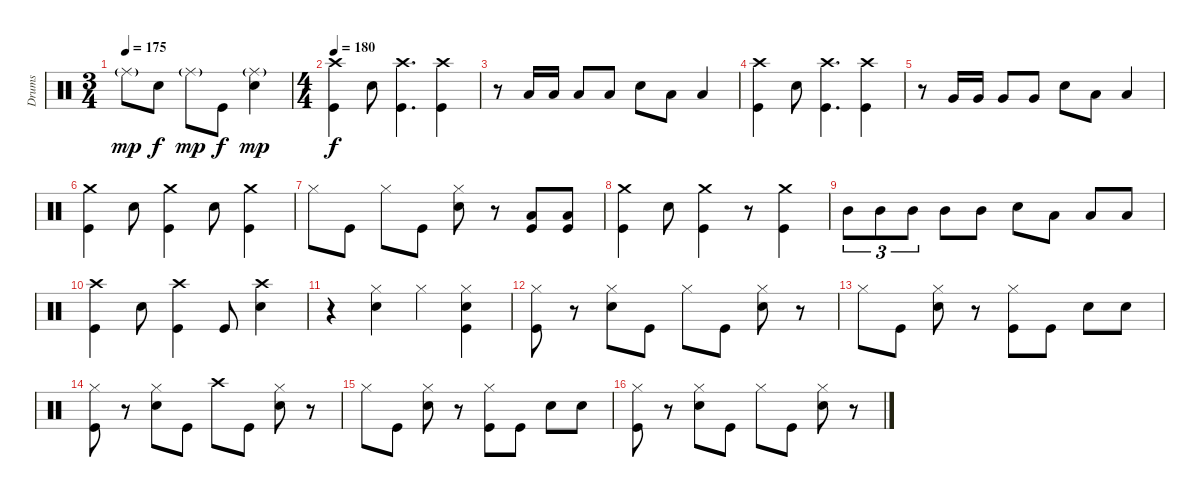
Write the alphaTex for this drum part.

\track ("Drums" "Drums") {instrument percussion}
\staff {score}
\articulation defaults
\ts (3 4)
\tempo 175
\clef neutral
\ks c "Ride (middle)"{g}.8{dy mp} "Electric Snare (hit)".8{dy f} "Ride (middle)"{g}.8{dy mp} "Kick (hit)".8{dy f}
("Ride (middle)"{g} "Electric Snare (hit)").4{dy mp} |
\ts (4 4)
\tempo 180
("Crash high (hit)" "Kick (hit)").4{dy f} "Electric Snare (hit)".8 ("Crash high (hit)" "Kick (hit)").4{d} ("Crash high (hit)" "Kick (hit)").4 |
r.8 "Low Tom (hit)".16 "Low Tom (hit)".16 "Low Tom (hit)".8 "Low Tom (hit)".8 "Electric Snare (hit)".8 "Low Tom (hit)".8 "Low Tom (hit)".4 |
("Crash high (hit)" "Kick (hit)").4 "Electric Snare (hit)".8 ("Crash high (hit)" "Kick (hit)").4{d} ("Crash high (hit)" "Kick (hit)").4 |
r.8 "Very Low Tom (hit)".16 "Very Low Tom (hit)".16 "Very Low Tom (hit)".8 "Very Low Tom (hit)".8 "Electric Snare (hit)".8 "Low Tom (hit)".8 "Low Tom (hit)".4 |
("Crash medium (hit)" "Kick (hit)").4 "Electric Snare (hit)".8 ("Crash medium (hit)" "Kick (hit)").4 "Electric Snare (hit)".8 ("Crash medium (hit)" "Kick (hit)").4 |
"Hi-Hat (closed)".8 "Kick (hit)".8 "Hi-Hat (closed)".8 "Kick (hit)".8 ("Hi-Hat (closed)" "Electric Snare (hit)").8 r.8 ("Low Tom (hit)" "Kick (hit)").8 ("Low Tom (hit)" "Kick (hit)").8 |
("Crash medium (hit)" "Kick (hit)").4 "Electric Snare (hit)".8 ("Crash medium (hit)" "Kick (hit)").4 r.8 ("Crash medium (hit)" "Kick (hit)").4 |
"Mid Tom (hit)".8{tu (3 2)} "Mid Tom (hit)".8{tu (3 2)} "Mid Tom (hit)".8{tu (3 2)} "Mid Tom (hit)".8 "Mid Tom (hit)".8 "Electric Snare (hit)".8 "Low Tom (hit)".8 "Low Tom (hit)".8 "Low Tom (hit)".8 |
("Crash high (hit)" "Kick (hit)").4 "Electric Snare (hit)".8 ("Crash high (hit)" "Kick (hit)").4 "Kick (hit)".8 ("Crash high (hit)" "Electric Snare (hit)").4 |
r.4 ("Hi-Hat (closed)" "Electric Snare (hit)").4 "Hi-Hat (closed)".4 ("Hi-Hat (closed)" "Electric Snare (hit)" "Kick (hit)").4 |
("Hi-Hat (closed)" "Kick (hit)").8 r.8 ("Hi-Hat (closed)" "Electric Snare (hit)").8 "Kick (hit)".8 "Hi-Hat (closed)".8 "Kick (hit)".8 ("Hi-Hat (closed)" "Electric Snare (hit)").8 r.8 |
"Hi-Hat (closed)".8 "Kick (hit)".8 ("Hi-Hat (closed)" "Electric Snare (hit)").8 r.8 ("Hi-Hat (closed)" "Kick (hit)").8 "Kick (hit)".8 "Electric Snare (hit)".8 "Electric Snare (hit)".8 |
("Hi-Hat (closed)" "Kick (hit)").8 r.8 ("Hi-Hat (closed)" "Electric Snare (hit)").8 "Kick (hit)".8 "Crash high (hit)".8 "Kick (hit)".8 ("Hi-Hat (closed)" "Electric Snare (hit)").8 r.8 |
"Hi-Hat (closed)".8 "Kick (hit)".8 ("Hi-Hat (closed)" "Electric Snare (hit)").8 r.8 ("Hi-Hat (closed)" "Kick (hit)").8 "Kick (hit)".8 "Electric Snare (hit)".8 "Electric Snare (hit)".8 |
("Hi-Hat (closed)" "Kick (hit)").8 r.8 ("Hi-Hat (closed)" "Electric Snare (hit)").8 "Kick (hit)".8 "Hi-Hat (closed)".8 "Kick (hit)".8 ("Hi-Hat (closed)" "Electric Snare (hit)").8 r.8
